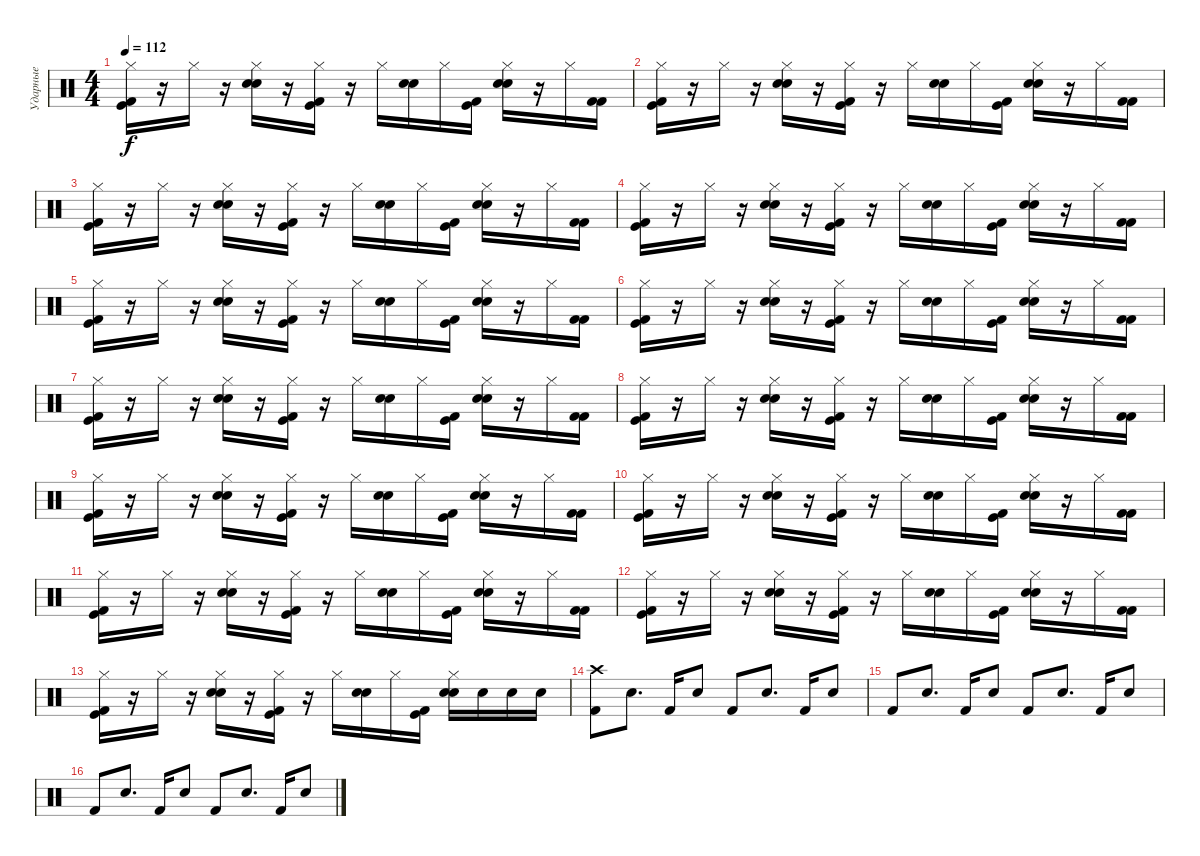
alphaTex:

\track ("Ударные" "Ударные") {instrument percussion}
\staff {score}
\articulation defaults
\ts (4 4)
\tempo 112
\clef neutral
\ks c
("Hi-Hat (closed)" "Kick (hit)" "Kick (hit) 2").16{dy f} r.16 "Hi-Hat (closed)".16 r.16 ("Hi-Hat (closed)" "Electric Snare (hit)" "Snare (hit) 2").16 r.16 ("Hi-Hat (closed)" "Kick (hit)" "Kick (hit) 2").16 r.16 "Hi-Hat (closed)".16 ("Snare (hit) 2" "Electric Snare (hit)").16 "Hi-Hat (closed)".16 ("Kick (hit)" "Kick (hit) 2").16 ("Hi-Hat (closed)" "Electric Snare (hit)" "Snare (hit) 2").16 r.16 "Hi-Hat (closed)".16 ("Kick (hit) 2" "Kick (hit) 2").16 |
("Hi-Hat (closed)" "Kick (hit)" "Kick (hit) 2").16 r.16 "Hi-Hat (closed)".16 r.16 ("Hi-Hat (closed)" "Electric Snare (hit)" "Snare (hit) 2").16 r.16 ("Hi-Hat (closed)" "Kick (hit)" "Kick (hit) 2").16 r.16 "Hi-Hat (closed)".16 ("Snare (hit) 2" "Electric Snare (hit)").16 "Hi-Hat (closed)".16 ("Kick (hit)" "Kick (hit) 2").16 ("Hi-Hat (closed)" "Electric Snare (hit)" "Snare (hit) 2").16 r.16 "Hi-Hat (closed)".16 ("Kick (hit) 2" "Kick (hit) 2").16 |
("Hi-Hat (closed)" "Kick (hit)" "Kick (hit) 2").16 r.16 "Hi-Hat (closed)".16 r.16 ("Hi-Hat (closed)" "Electric Snare (hit)" "Snare (hit) 2").16 r.16 ("Hi-Hat (closed)" "Kick (hit)" "Kick (hit) 2").16 r.16 "Hi-Hat (closed)".16 ("Snare (hit) 2" "Electric Snare (hit)").16 "Hi-Hat (closed)".16 ("Kick (hit)" "Kick (hit) 2").16 ("Hi-Hat (closed)" "Electric Snare (hit)" "Snare (hit) 2").16 r.16 "Hi-Hat (closed)".16 ("Kick (hit) 2" "Kick (hit) 2").16 |
("Hi-Hat (closed)" "Kick (hit)" "Kick (hit) 2").16 r.16 "Hi-Hat (closed)".16 r.16 ("Hi-Hat (closed)" "Electric Snare (hit)" "Snare (hit) 2").16 r.16 ("Hi-Hat (closed)" "Kick (hit)" "Kick (hit) 2").16 r.16 "Hi-Hat (closed)".16 ("Snare (hit) 2" "Electric Snare (hit)").16 "Hi-Hat (closed)".16 ("Kick (hit)" "Kick (hit) 2").16 ("Hi-Hat (closed)" "Electric Snare (hit)" "Snare (hit) 2").16 r.16 "Hi-Hat (closed)".16 ("Kick (hit) 2" "Kick (hit) 2").16 |
("Hi-Hat (closed)" "Kick (hit)" "Kick (hit) 2").16 r.16 "Hi-Hat (closed)".16 r.16 ("Hi-Hat (closed)" "Electric Snare (hit)" "Snare (hit) 2").16 r.16 ("Hi-Hat (closed)" "Kick (hit)" "Kick (hit) 2").16 r.16 "Hi-Hat (closed)".16 ("Snare (hit) 2" "Electric Snare (hit)").16 "Hi-Hat (closed)".16 ("Kick (hit)" "Kick (hit) 2").16 ("Hi-Hat (closed)" "Electric Snare (hit)" "Snare (hit) 2").16 r.16 "Hi-Hat (closed)".16 ("Kick (hit) 2" "Kick (hit) 2").16 |
("Hi-Hat (closed)" "Kick (hit)" "Kick (hit) 2").16 r.16 "Hi-Hat (closed)".16 r.16 ("Hi-Hat (closed)" "Electric Snare (hit)" "Snare (hit) 2").16 r.16 ("Hi-Hat (closed)" "Kick (hit)" "Kick (hit) 2").16 r.16 "Hi-Hat (closed)".16 ("Snare (hit) 2" "Electric Snare (hit)").16 "Hi-Hat (closed)".16 ("Kick (hit)" "Kick (hit) 2").16 ("Hi-Hat (closed)" "Electric Snare (hit)" "Snare (hit) 2").16 r.16 "Hi-Hat (closed)".16 ("Kick (hit) 2" "Kick (hit) 2").16 |
("Hi-Hat (closed)" "Kick (hit)" "Kick (hit) 2").16 r.16 "Hi-Hat (closed)".16 r.16 ("Hi-Hat (closed)" "Electric Snare (hit)" "Snare (hit) 2").16 r.16 ("Hi-Hat (closed)" "Kick (hit)" "Kick (hit) 2").16 r.16 "Hi-Hat (closed)".16 ("Snare (hit) 2" "Electric Snare (hit)").16 "Hi-Hat (closed)".16 ("Kick (hit)" "Kick (hit) 2").16 ("Hi-Hat (closed)" "Electric Snare (hit)" "Snare (hit) 2").16 r.16 "Hi-Hat (closed)".16 ("Kick (hit) 2" "Kick (hit) 2").16 |
("Hi-Hat (closed)" "Kick (hit)" "Kick (hit) 2").16 r.16 "Hi-Hat (closed)".16 r.16 ("Hi-Hat (closed)" "Electric Snare (hit)" "Snare (hit) 2").16 r.16 ("Hi-Hat (closed)" "Kick (hit)" "Kick (hit) 2").16 r.16 "Hi-Hat (closed)".16 ("Snare (hit) 2" "Electric Snare (hit)").16 "Hi-Hat (closed)".16 ("Kick (hit)" "Kick (hit) 2").16 ("Hi-Hat (closed)" "Electric Snare (hit)" "Snare (hit) 2").16 r.16 "Hi-Hat (closed)".16 ("Kick (hit) 2" "Kick (hit) 2").16 |
("Hi-Hat (closed)" "Kick (hit)" "Kick (hit) 2").16 r.16 "Hi-Hat (closed)".16 r.16 ("Hi-Hat (closed)" "Electric Snare (hit)" "Snare (hit) 2").16 r.16 ("Hi-Hat (closed)" "Kick (hit)" "Kick (hit) 2").16 r.16 "Hi-Hat (closed)".16 ("Snare (hit) 2" "Electric Snare (hit)").16 "Hi-Hat (closed)".16 ("Kick (hit)" "Kick (hit) 2").16 ("Hi-Hat (closed)" "Electric Snare (hit)" "Snare (hit) 2").16 r.16 "Hi-Hat (closed)".16 ("Kick (hit) 2" "Kick (hit) 2").16 |
("Hi-Hat (closed)" "Kick (hit)" "Kick (hit) 2").16 r.16 "Hi-Hat (closed)".16 r.16 ("Hi-Hat (closed)" "Electric Snare (hit)" "Snare (hit) 2").16 r.16 ("Hi-Hat (closed)" "Kick (hit)" "Kick (hit) 2").16 r.16 "Hi-Hat (closed)".16 ("Snare (hit) 2" "Electric Snare (hit)").16 "Hi-Hat (closed)".16 ("Kick (hit)" "Kick (hit) 2").16 ("Hi-Hat (closed)" "Electric Snare (hit)" "Snare (hit) 2").16 r.16 "Hi-Hat (closed)".16 ("Kick (hit) 2" "Kick (hit) 2").16 |
("Hi-Hat (closed)" "Kick (hit)" "Kick (hit) 2").16 r.16 "Hi-Hat (closed)".16 r.16 ("Hi-Hat (closed)" "Electric Snare (hit)" "Snare (hit) 2").16 r.16 ("Hi-Hat (closed)" "Kick (hit)" "Kick (hit) 2").16 r.16 "Hi-Hat (closed)".16 ("Snare (hit) 2" "Electric Snare (hit)").16 "Hi-Hat (closed)".16 ("Kick (hit)" "Kick (hit) 2").16 ("Hi-Hat (closed)" "Electric Snare (hit)" "Snare (hit) 2").16 r.16 "Hi-Hat (closed)".16 ("Kick (hit) 2" "Kick (hit) 2").16 |
("Hi-Hat (closed)" "Kick (hit)" "Kick (hit) 2").16 r.16 "Hi-Hat (closed)".16 r.16 ("Hi-Hat (closed)" "Electric Snare (hit)" "Snare (hit) 2").16 r.16 ("Hi-Hat (closed)" "Kick (hit)" "Kick (hit) 2").16 r.16 "Hi-Hat (closed)".16 ("Snare (hit) 2" "Electric Snare (hit)").16 "Hi-Hat (closed)".16 ("Kick (hit)" "Kick (hit) 2").16 ("Hi-Hat (closed)" "Electric Snare (hit)" "Snare (hit) 2").16 r.16 "Hi-Hat (closed)".16 ("Kick (hit) 2" "Kick (hit) 2").16 |
("Hi-Hat (closed)" "Kick (hit)" "Kick (hit) 2").16 r.16 "Hi-Hat (closed)".16 r.16 ("Hi-Hat (closed)" "Electric Snare (hit)" "Snare (hit) 2").16 r.16 ("Hi-Hat (closed)" "Kick (hit)" "Kick (hit) 2").16 r.16 "Hi-Hat (closed)".16 ("Snare (hit) 2" "Electric Snare (hit)").16 "Hi-Hat (closed)".16 ("Kick (hit)" "Kick (hit) 2").16 ("Hi-Hat (closed)" "Electric Snare (hit)" "Snare (hit) 2").16 "Electric Snare (hit)".16 "Electric Snare (hit)".16 "Electric Snare (hit)".16 |
("Kick (hit) 2" "Crash high (hit)").8 "Electric Snare (hit)".8{d} "Kick (hit) 2".16 "Electric Snare (hit)".8 "Kick (hit) 2".8 "Electric Snare (hit)".8{d} "Kick (hit) 2".16 "Electric Snare (hit)".8 |
"Kick (hit) 2".8 "Electric Snare (hit)".8{d} "Kick (hit) 2".16 "Electric Snare (hit)".8 "Kick (hit) 2".8 "Electric Snare (hit)".8{d} "Kick (hit) 2".16 "Electric Snare (hit)".8 |
"Kick (hit) 2".8 "Electric Snare (hit)".8{d} "Kick (hit) 2".16 "Electric Snare (hit)".8 "Kick (hit) 2".8 "Electric Snare (hit)".8{d} "Kick (hit) 2".16 "Electric Snare (hit)".8
